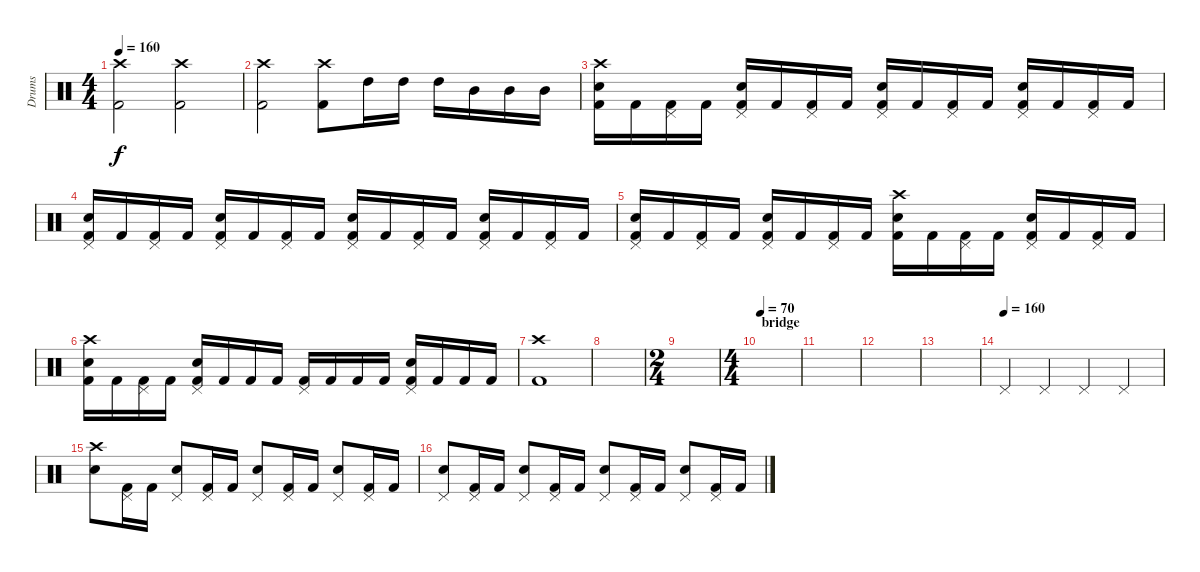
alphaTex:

\track ("Drums" "Drums") {instrument percussion}
\staff {score}
\articulation defaults
\ts (4 4)
\tempo 160
\clef neutral
\ks c
("Crash high (hit)" "Kick (hit) 2").2{dy f} ("Crash high (hit)" "Kick (hit) 2").2 |
("Crash high (hit)" "Kick (hit) 2").2 ("Crash high (hit)" "Kick (hit) 2").8 "High Tom (hit)".16 "High Tom (hit)".16 "High Tom (hit)".16 "Mid Tom (hit)".16 "Mid Tom (hit)".16 "Mid Tom (hit)".16 |
("Crash high (hit)" "Snare (hit) 2" "Kick (hit) 2").16 "Kick (hit) 2".16 ("Pedal Hi-Hat (hit)" "Kick (hit) 2").16 "Kick (hit) 2".16 ("Pedal Hi-Hat (hit)" "Snare (hit) 2" "Kick (hit) 2").16 "Kick (hit) 2".16 ("Pedal Hi-Hat (hit)" "Kick (hit) 2").16 "Kick (hit) 2".16 ("Pedal Hi-Hat (hit)" "Snare (hit) 2" "Kick (hit) 2").16 "Kick (hit) 2".16 ("Pedal Hi-Hat (hit)" "Kick (hit) 2").16 "Kick (hit) 2".16 ("Pedal Hi-Hat (hit)" "Snare (hit) 2" "Kick (hit) 2").16 "Kick (hit) 2".16 ("Pedal Hi-Hat (hit)" "Kick (hit) 2").16 "Kick (hit) 2".16 |
("Pedal Hi-Hat (hit)" "Snare (hit) 2" "Kick (hit) 2").16 "Kick (hit) 2".16 ("Pedal Hi-Hat (hit)" "Kick (hit) 2").16 "Kick (hit) 2".16 ("Pedal Hi-Hat (hit)" "Snare (hit) 2" "Kick (hit) 2").16 "Kick (hit) 2".16 ("Pedal Hi-Hat (hit)" "Kick (hit) 2").16 "Kick (hit) 2".16 ("Pedal Hi-Hat (hit)" "Snare (hit) 2" "Kick (hit) 2").16 "Kick (hit) 2".16 ("Pedal Hi-Hat (hit)" "Kick (hit) 2").16 "Kick (hit) 2".16 ("Pedal Hi-Hat (hit)" "Snare (hit) 2" "Kick (hit) 2").16 "Kick (hit) 2".16 ("Pedal Hi-Hat (hit)" "Kick (hit) 2").16 "Kick (hit) 2".16 |
("Pedal Hi-Hat (hit)" "Snare (hit) 2" "Kick (hit) 2").16 "Kick (hit) 2".16 ("Pedal Hi-Hat (hit)" "Kick (hit) 2").16 "Kick (hit) 2".16 ("Pedal Hi-Hat (hit)" "Snare (hit) 2" "Kick (hit) 2").16 "Kick (hit) 2".16 ("Pedal Hi-Hat (hit)" "Kick (hit) 2").16 "Kick (hit) 2".16 ("Crash high (hit)" "Snare (hit) 2" "Kick (hit) 2").16 "Kick (hit) 2".16 ("Pedal Hi-Hat (hit)" "Kick (hit) 2").16 "Kick (hit) 2".16 ("Pedal Hi-Hat (hit)" "Snare (hit) 2" "Kick (hit) 2").16 "Kick (hit) 2".16 ("Pedal Hi-Hat (hit)" "Kick (hit) 2").16 "Kick (hit) 2".16 |
("Crash high (hit)" "Snare (hit) 2" "Kick (hit) 2").16 "Kick (hit) 2".16 ("Pedal Hi-Hat (hit)" "Kick (hit) 2").16 "Kick (hit) 2".16 ("Pedal Hi-Hat (hit)" "Snare (hit) 2" "Kick (hit) 2").16 "Kick (hit) 2".16 "Kick (hit) 2".16 "Kick (hit) 2".16 ("Pedal Hi-Hat (hit)" "Kick (hit) 2").16 "Kick (hit) 2".16 "Kick (hit) 2".16 "Kick (hit) 2".16 ("Pedal Hi-Hat (hit)" "Snare (hit) 2" "Kick (hit) 2").16 "Kick (hit) 2".16 "Kick (hit) 2".16 "Kick (hit) 2".16 |
("Crash high (hit)" "Kick (hit) 2").1 |
|
\ts (2 4)
|
\ts (4 4)
\section ("" "bridge")
\tempo 70
|
|
|
|
\tempo (160)
"Pedal Hi-Hat (hit)".4 "Pedal Hi-Hat (hit)".4 "Pedal Hi-Hat (hit)".4 "Pedal Hi-Hat (hit)".4 |
("Crash high (hit)" "Snare (hit) 2").8 ("Pedal Hi-Hat (hit)" "Kick (hit) 2").16 "Kick (hit) 2".16 ("Pedal Hi-Hat (hit)" "Snare (hit) 2").8 ("Pedal Hi-Hat (hit)" "Kick (hit) 2").16 "Kick (hit) 2".16 ("Pedal Hi-Hat (hit)" "Snare (hit) 2").8 ("Pedal Hi-Hat (hit)" "Kick (hit) 2").16 "Kick (hit) 2".16 ("Pedal Hi-Hat (hit)" "Snare (hit) 2").8 ("Pedal Hi-Hat (hit)" "Kick (hit) 2").16 "Kick (hit) 2".16 |
("Pedal Hi-Hat (hit)" "Snare (hit) 2").8 ("Pedal Hi-Hat (hit)" "Kick (hit) 2").16 "Kick (hit) 2".16 ("Pedal Hi-Hat (hit)" "Snare (hit) 2").8 ("Pedal Hi-Hat (hit)" "Kick (hit) 2").16 "Kick (hit) 2".16 ("Pedal Hi-Hat (hit)" "Snare (hit) 2").8 ("Pedal Hi-Hat (hit)" "Kick (hit) 2").16 "Kick (hit) 2".16 ("Pedal Hi-Hat (hit)" "Snare (hit) 2").8 ("Pedal Hi-Hat (hit)" "Kick (hit) 2").16 "Kick (hit) 2".16
